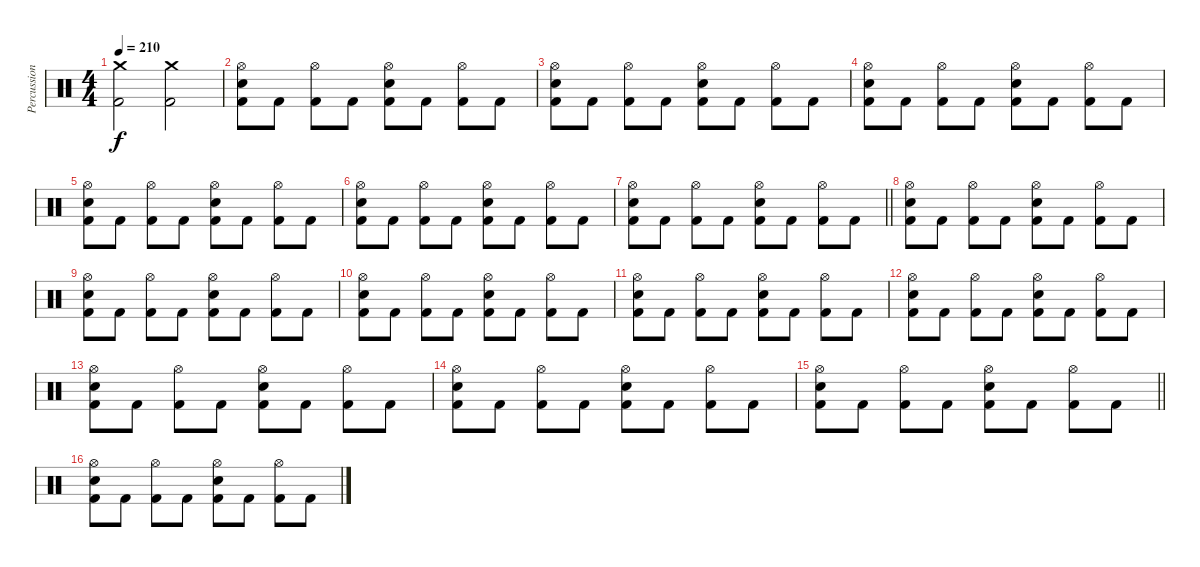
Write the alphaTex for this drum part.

\track ("Percussions" "Percussion") {instrument percussion}
\staff {score}
\articulation defaults
\ts (4 4)
\tempo 210
\clef neutral
\ks c
("Kick (hit) 2" "Crash medium (hit)").2{dy f} ("Kick (hit) 2" "Crash medium (hit)").2 |
("Kick (hit) 2" "Electric Snare (hit)" "Hi-Hat (open)").8 "Kick (hit) 2".8 ("Kick (hit) 2" "Hi-Hat (open)").8 "Kick (hit) 2".8 ("Kick (hit) 2" "Electric Snare (hit)" "Hi-Hat (open)").8 "Kick (hit) 2".8 ("Kick (hit) 2" "Hi-Hat (open)").8 "Kick (hit) 2".8 |
("Kick (hit) 2" "Electric Snare (hit)" "Hi-Hat (open)").8 "Kick (hit) 2".8 ("Kick (hit) 2" "Hi-Hat (open)").8 "Kick (hit) 2".8 ("Kick (hit) 2" "Electric Snare (hit)" "Hi-Hat (open)").8 "Kick (hit) 2".8 ("Kick (hit) 2" "Hi-Hat (open)").8 "Kick (hit) 2".8 |
("Kick (hit) 2" "Electric Snare (hit)" "Hi-Hat (open)").8 "Kick (hit) 2".8 ("Kick (hit) 2" "Hi-Hat (open)").8 "Kick (hit) 2".8 ("Kick (hit) 2" "Electric Snare (hit)" "Hi-Hat (open)").8 "Kick (hit) 2".8 ("Kick (hit) 2" "Hi-Hat (open)").8 "Kick (hit) 2".8 |
("Kick (hit) 2" "Electric Snare (hit)" "Hi-Hat (open)").8 "Kick (hit) 2".8 ("Kick (hit) 2" "Hi-Hat (open)").8 "Kick (hit) 2".8 ("Kick (hit) 2" "Electric Snare (hit)" "Hi-Hat (open)").8 "Kick (hit) 2".8 ("Kick (hit) 2" "Hi-Hat (open)").8 "Kick (hit) 2".8 |
("Kick (hit) 2" "Electric Snare (hit)" "Hi-Hat (open)").8 "Kick (hit) 2".8 ("Kick (hit) 2" "Hi-Hat (open)").8 "Kick (hit) 2".8 ("Kick (hit) 2" "Electric Snare (hit)" "Hi-Hat (open)").8 "Kick (hit) 2".8 ("Kick (hit) 2" "Hi-Hat (open)").8 "Kick (hit) 2".8 |
\barLineRight lightlight
("Kick (hit) 2" "Electric Snare (hit)" "Hi-Hat (open)").8 "Kick (hit) 2".8 ("Kick (hit) 2" "Hi-Hat (open)").8 "Kick (hit) 2".8 ("Kick (hit) 2" "Electric Snare (hit)" "Hi-Hat (open)").8 "Kick (hit) 2".8 ("Kick (hit) 2" "Hi-Hat (open)").8 "Kick (hit) 2".8 |
\section ("" "")
("Kick (hit) 2" "Electric Snare (hit)" "Hi-Hat (open)").8 "Kick (hit) 2".8 ("Kick (hit) 2" "Hi-Hat (open)").8 "Kick (hit) 2".8 ("Kick (hit) 2" "Electric Snare (hit)" "Hi-Hat (open)").8 "Kick (hit) 2".8 ("Kick (hit) 2" "Hi-Hat (open)").8 "Kick (hit) 2".8 |
("Kick (hit) 2" "Electric Snare (hit)" "Hi-Hat (open)").8 "Kick (hit) 2".8 ("Kick (hit) 2" "Hi-Hat (open)").8 "Kick (hit) 2".8 ("Kick (hit) 2" "Electric Snare (hit)" "Hi-Hat (open)").8 "Kick (hit) 2".8 ("Kick (hit) 2" "Hi-Hat (open)").8 "Kick (hit) 2".8 |
("Kick (hit) 2" "Electric Snare (hit)" "Hi-Hat (open)").8 "Kick (hit) 2".8 ("Kick (hit) 2" "Hi-Hat (open)").8 "Kick (hit) 2".8 ("Kick (hit) 2" "Electric Snare (hit)" "Hi-Hat (open)").8 "Kick (hit) 2".8 ("Kick (hit) 2" "Hi-Hat (open)").8 "Kick (hit) 2".8 |
("Kick (hit) 2" "Electric Snare (hit)" "Hi-Hat (open)").8 "Kick (hit) 2".8 ("Kick (hit) 2" "Hi-Hat (open)").8 "Kick (hit) 2".8 ("Kick (hit) 2" "Electric Snare (hit)" "Hi-Hat (open)").8 "Kick (hit) 2".8 ("Kick (hit) 2" "Hi-Hat (open)").8 "Kick (hit) 2".8 |
("Kick (hit) 2" "Electric Snare (hit)" "Hi-Hat (open)").8 "Kick (hit) 2".8 ("Kick (hit) 2" "Hi-Hat (open)").8 "Kick (hit) 2".8 ("Kick (hit) 2" "Electric Snare (hit)" "Hi-Hat (open)").8 "Kick (hit) 2".8 ("Kick (hit) 2" "Hi-Hat (open)").8 "Kick (hit) 2".8 |
("Kick (hit) 2" "Electric Snare (hit)" "Hi-Hat (open)").8 "Kick (hit) 2".8 ("Kick (hit) 2" "Hi-Hat (open)").8 "Kick (hit) 2".8 ("Kick (hit) 2" "Electric Snare (hit)" "Hi-Hat (open)").8 "Kick (hit) 2".8 ("Kick (hit) 2" "Hi-Hat (open)").8 "Kick (hit) 2".8 |
("Kick (hit) 2" "Electric Snare (hit)" "Hi-Hat (open)").8 "Kick (hit) 2".8 ("Kick (hit) 2" "Hi-Hat (open)").8 "Kick (hit) 2".8 ("Kick (hit) 2" "Electric Snare (hit)" "Hi-Hat (open)").8 "Kick (hit) 2".8 ("Kick (hit) 2" "Hi-Hat (open)").8 "Kick (hit) 2".8 |
\barLineRight lightlight
("Kick (hit) 2" "Electric Snare (hit)" "Hi-Hat (open)").8 "Kick (hit) 2".8 ("Kick (hit) 2" "Hi-Hat (open)").8 "Kick (hit) 2".8 ("Kick (hit) 2" "Electric Snare (hit)" "Hi-Hat (open)").8 "Kick (hit) 2".8 ("Kick (hit) 2" "Hi-Hat (open)").8 "Kick (hit) 2".8 |
\section ("" "")
("Kick (hit) 2" "Electric Snare (hit)" "Hi-Hat (open)").8 "Kick (hit) 2".8 ("Kick (hit) 2" "Hi-Hat (open)").8 "Kick (hit) 2".8 ("Kick (hit) 2" "Electric Snare (hit)" "Hi-Hat (open)").8 "Kick (hit) 2".8 ("Kick (hit) 2" "Hi-Hat (open)").8 "Kick (hit) 2".8
